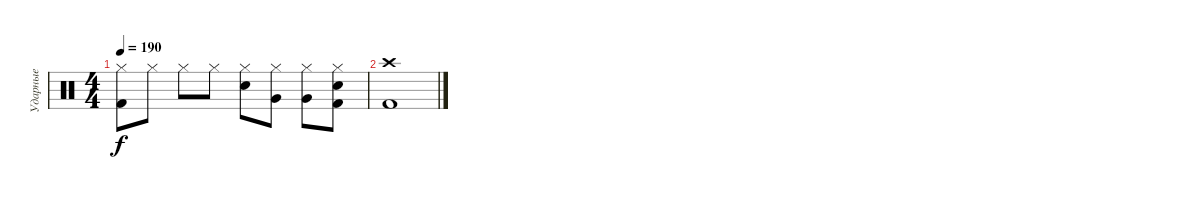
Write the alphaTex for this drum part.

\track ("Ударные" "Ударные") {instrument percussion}
\staff {score}
\articulation defaults
\ts (4 4)
\tempo 190
\clef neutral
\ks c
("Hi-Hat (closed)" "Kick (hit) 2").8{dy f} "Hi-Hat (closed)".8 "Hi-Hat (closed)".8 "Hi-Hat (closed)".8 ("Hi-Hat (closed)" "Electric Snare (hit)").8 ("Hi-Hat (closed)" "Very Low Tom (hit)").8 ("Hi-Hat (closed)" "Very Low Tom (hit)").8 ("Hi-Hat (closed)" "Electric Snare (hit)" "Kick (hit) 2").8 |
("Crash high (hit)" "Kick (hit) 2").1
